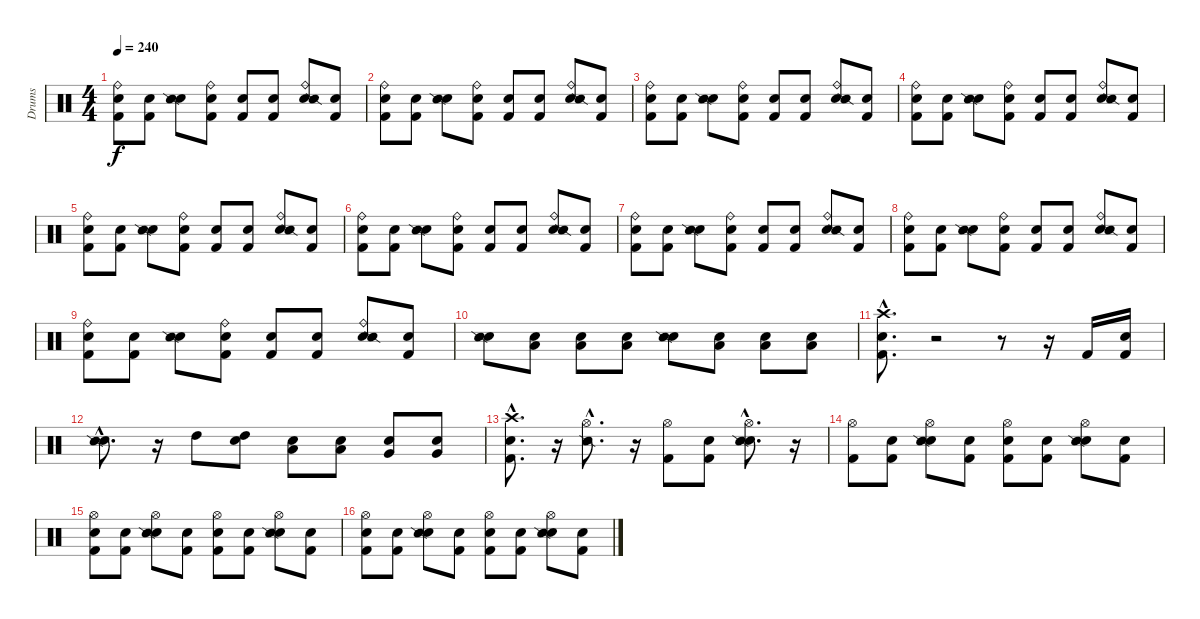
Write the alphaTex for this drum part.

\track ("Drums" "Drums") {instrument percussion}
\staff {score}
\articulation defaults
\ts (4 4)
\tempo 240
\clef neutral
\ks c
("Snare (hit)" "Kick (hit) 2" "Ride (bell)").8{dy f} ("Snare (hit)" "Kick (hit) 2").8 ("Snare (hit)" "Snare (side stick) 2").8 ("Snare (hit)" "Kick (hit) 2" "Ride (bell)").8 ("Snare (hit)" "Kick (hit) 2").8 ("Snare (hit)" "Kick (hit) 2").8 ("Snare (hit)" "Ride (bell)" "Snare (side stick) 2").8 ("Snare (hit)" "Kick (hit) 2").8 |
("Snare (hit)" "Kick (hit) 2" "Ride (bell)").8 ("Snare (hit)" "Kick (hit) 2").8 ("Snare (hit)" "Snare (side stick) 2").8 ("Snare (hit)" "Kick (hit) 2" "Ride (bell)").8 ("Snare (hit)" "Kick (hit) 2").8 ("Snare (hit)" "Kick (hit) 2").8 ("Snare (hit)" "Ride (bell)" "Snare (side stick) 2").8 ("Snare (hit)" "Kick (hit) 2").8 |
("Snare (hit)" "Kick (hit) 2" "Ride (bell)").8 ("Snare (hit)" "Kick (hit) 2").8 ("Snare (hit)" "Snare (side stick) 2").8 ("Snare (hit)" "Kick (hit) 2" "Ride (bell)").8 ("Snare (hit)" "Kick (hit) 2").8 ("Snare (hit)" "Kick (hit) 2").8 ("Snare (hit)" "Ride (bell)" "Snare (side stick) 2").8 ("Snare (hit)" "Kick (hit) 2").8 |
("Snare (hit)" "Kick (hit) 2" "Ride (bell)").8 ("Snare (hit)" "Kick (hit) 2").8 ("Snare (hit)" "Snare (side stick) 2").8 ("Snare (hit)" "Kick (hit) 2" "Ride (bell)").8 ("Snare (hit)" "Kick (hit) 2").8 ("Snare (hit)" "Kick (hit) 2").8 ("Snare (hit)" "Ride (bell)" "Snare (side stick) 2").8 ("Snare (hit)" "Kick (hit) 2").8 |
("Snare (hit)" "Kick (hit) 2" "Ride (bell)").8 ("Snare (hit)" "Kick (hit) 2").8 ("Snare (hit)" "Snare (side stick) 2").8 ("Snare (hit)" "Kick (hit) 2" "Ride (bell)").8 ("Snare (hit)" "Kick (hit) 2").8 ("Snare (hit)" "Kick (hit) 2").8 ("Snare (hit)" "Ride (bell)" "Snare (side stick) 2").8 ("Snare (hit)" "Kick (hit) 2").8 |
("Snare (hit)" "Kick (hit) 2" "Ride (bell)").8 ("Snare (hit)" "Kick (hit) 2").8 ("Snare (hit)" "Snare (side stick) 2").8 ("Snare (hit)" "Kick (hit) 2" "Ride (bell)").8 ("Snare (hit)" "Kick (hit) 2").8 ("Snare (hit)" "Kick (hit) 2").8 ("Snare (hit)" "Ride (bell)" "Snare (side stick) 2").8 ("Snare (hit)" "Kick (hit) 2").8 |
("Snare (hit)" "Kick (hit) 2" "Ride (bell)").8 ("Snare (hit)" "Kick (hit) 2").8 ("Snare (hit)" "Snare (side stick) 2").8 ("Snare (hit)" "Kick (hit) 2" "Ride (bell)").8 ("Snare (hit)" "Kick (hit) 2").8 ("Snare (hit)" "Kick (hit) 2").8 ("Snare (hit)" "Ride (bell)" "Snare (side stick) 2").8 ("Snare (hit)" "Kick (hit) 2").8 |
("Snare (hit)" "Kick (hit) 2" "Ride (bell)").8 ("Snare (hit)" "Kick (hit) 2").8 ("Snare (hit)" "Snare (side stick) 2").8 ("Snare (hit)" "Kick (hit) 2" "Ride (bell)").8 ("Snare (hit)" "Kick (hit) 2").8 ("Snare (hit)" "Kick (hit) 2").8 ("Snare (hit)" "Ride (bell)" "Snare (side stick) 2").8 ("Snare (hit)" "Kick (hit) 2").8 |
("Snare (hit)" "Kick (hit) 2" "Ride (bell)").8 ("Snare (hit)" "Kick (hit) 2").8 ("Snare (hit)" "Snare (side stick) 2").8 ("Snare (hit)" "Kick (hit) 2" "Ride (bell)").8 ("Snare (hit)" "Kick (hit) 2").8 ("Snare (hit)" "Kick (hit) 2").8 ("Snare (hit)" "Ride (bell)" "Snare (side stick) 2").8 ("Snare (hit)" "Kick (hit) 2").8 |
("Snare (hit)" "Snare (side stick) 2").8 ("Snare (hit)" "Low Tom (hit)").8 ("Snare (hit)" "Low Tom (hit)").8 ("Snare (hit)" "Low Tom (hit)").8 ("Snare (hit)" "Snare (side stick) 2").8 ("Snare (hit)" "Low Tom (hit)").8 ("Snare (hit)" "Low Tom (hit)").8 ("Snare (hit)" "Low Tom (hit)").8 |
("Snare (hit)"{hac} "Kick (hit) 2"{hac} "Crash high (hit)"{hac}).8{d} r.2 r.8 r.16 "Kick (hit) 2".16 ("Snare (hit)" "Kick (hit) 2").16 |
("Snare (hit)"{hac} "Snare (side stick) 2"{hac}).8{d} r.16 "High Tom (hit)".8 ("Snare (hit)" "High Tom (hit)").8 ("Snare (hit)" "Low Tom (hit)").8 ("Snare (hit)" "Low Tom (hit)").8 ("Snare (hit)" "Very Low Tom (hit)").8 ("Snare (hit)" "Very Low Tom (hit)").8 |
("Snare (hit)"{hac} "Kick (hit) 2"{hac} "Crash high (hit)"{hac}).8{d} r.16 ("Hi-Hat (open)"{hac} "Snare (side stick) 2"{hac}).8{d} r.16 ("Kick (hit) 2" "Hi-Hat (open)").8 ("Snare (hit)" "Kick (hit) 2").8 ("Snare (hit)"{hac} "Hi-Hat (open)"{hac} "Snare (side stick) 2"{hac}).8{d} r.16 |
("Kick (hit) 2" "Hi-Hat (open)").8 ("Snare (hit)" "Kick (hit) 2").8 ("Snare (hit)" "Hi-Hat (open)" "Snare (side stick) 2").8 ("Snare (hit)" "Kick (hit) 2").8 ("Snare (hit)" "Kick (hit) 2" "Hi-Hat (open)").8 ("Snare (hit)" "Kick (hit) 2").8 ("Snare (hit)" "Hi-Hat (open)" "Snare (side stick) 2").8 ("Snare (hit)" "Kick (hit) 2").8 |
("Snare (hit)" "Kick (hit) 2" "Hi-Hat (open)").8 ("Snare (hit)" "Kick (hit) 2").8 ("Snare (hit)" "Hi-Hat (open)" "Snare (side stick) 2").8 ("Snare (hit)" "Kick (hit) 2").8 ("Snare (hit)" "Kick (hit) 2" "Hi-Hat (open)").8 ("Snare (hit)" "Kick (hit) 2").8 ("Snare (hit)" "Hi-Hat (open)" "Snare (side stick) 2").8 ("Snare (hit)" "Kick (hit) 2").8 |
("Snare (hit)" "Kick (hit) 2" "Hi-Hat (open)").8 ("Snare (hit)" "Kick (hit) 2").8 ("Snare (hit)" "Hi-Hat (open)" "Snare (side stick) 2").8 ("Snare (hit)" "Kick (hit) 2").8 ("Snare (hit)" "Kick (hit) 2" "Hi-Hat (open)").8 ("Snare (hit)" "Kick (hit) 2").8 ("Snare (hit)" "Hi-Hat (open)" "Snare (side stick) 2").8 ("Snare (hit)" "Kick (hit) 2").8
